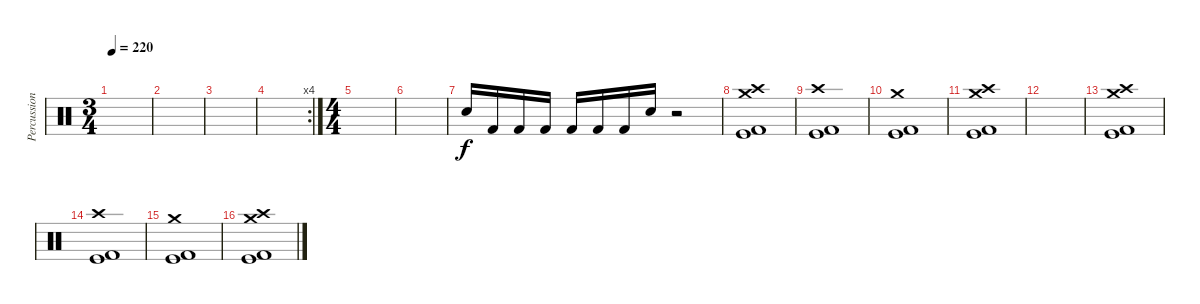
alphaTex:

\track ("Percussion" "Percussion") {instrument percussion}
\staff {score}
\articulation defaults
\ts (3 4)
\tempo 220
\clef neutral
\ks c
|
|
|
\rc 4
|
\ts (4 4)
|
|
"Electric Snare (hit)".16 "Kick (hit) 2".16 "Kick (hit) 2".16 "Kick (hit) 2".16 "Kick (hit) 2".16 "Kick (hit) 2".16 "Kick (hit) 2".16 "Electric Snare (hit)".16 r.2 |
("Crash high (hit)" "Crash medium (hit)" "Kick (hit)" "Kick (hit) 2").1 |
("Crash high (hit)" "Kick (hit)" "Kick (hit) 2").1 |
("Crash medium (hit)" "Kick (hit)" "Kick (hit) 2").1 |
("Crash high (hit)" "Crash medium (hit)" "Kick (hit)" "Kick (hit) 2").1 |
|
("Crash high (hit)" "Crash medium (hit)" "Kick (hit)" "Kick (hit) 2").1 |
("Crash high (hit)" "Kick (hit)" "Kick (hit) 2").1 |
("Crash medium (hit)" "Kick (hit)" "Kick (hit) 2").1 |
("Crash high (hit)" "Crash medium (hit)" "Kick (hit)" "Kick (hit) 2").1
